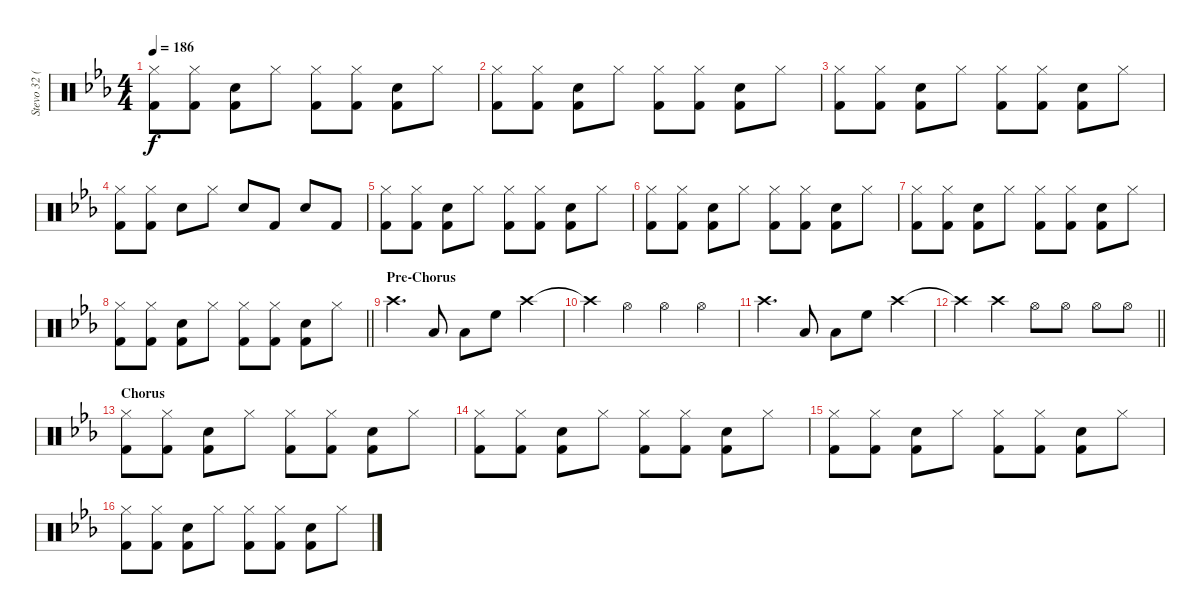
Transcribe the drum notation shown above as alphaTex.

\track ("Stevo 32 (Drums)" "Stevo 32 (") {instrument percussion}
\staff {score}
\articulation defaults
\ts (4 4)
\tempo 186
\clef neutral
\ks eb
("Kick (hit) 2" "Hi-Hat (closed)").8{dy f} ("Kick (hit) 2" "Hi-Hat (closed)").8 ("Kick (hit) 2" "Snare (hit) 2").8 "Hi-Hat (closed)".8 ("Kick (hit) 2" "Hi-Hat (closed)").8 ("Kick (hit) 2" "Hi-Hat (closed)").8 ("Kick (hit) 2" "Snare (hit) 2").8 "Hi-Hat (closed)".8 |
("Kick (hit) 2" "Hi-Hat (closed)").8 ("Kick (hit) 2" "Hi-Hat (closed)").8 ("Kick (hit) 2" "Snare (hit) 2").8 "Hi-Hat (closed)".8 ("Kick (hit) 2" "Hi-Hat (closed)").8 ("Kick (hit) 2" "Hi-Hat (closed)").8 ("Kick (hit) 2" "Snare (hit) 2").8 "Hi-Hat (closed)".8 |
("Kick (hit) 2" "Hi-Hat (closed)").8 ("Kick (hit) 2" "Hi-Hat (closed)").8 ("Kick (hit) 2" "Snare (hit) 2").8 "Hi-Hat (closed)".8 ("Kick (hit) 2" "Hi-Hat (closed)").8 ("Kick (hit) 2" "Hi-Hat (closed)").8 ("Kick (hit) 2" "Snare (hit) 2").8 "Hi-Hat (closed)".8 |
("Kick (hit) 2" "Hi-Hat (closed)").8 ("Kick (hit) 2" "Hi-Hat (closed)").8 "Snare (hit) 2".8 "Hi-Hat (closed)".8 "Snare (hit) 2".8 "Kick (hit) 2".8 "Snare (hit) 2".8 "Kick (hit) 2".8 |
("Kick (hit) 2" "Hi-Hat (closed)").8 ("Kick (hit) 2" "Hi-Hat (closed)").8 ("Kick (hit) 2" "Snare (hit) 2").8 "Hi-Hat (closed)".8 ("Kick (hit) 2" "Hi-Hat (closed)").8 ("Kick (hit) 2" "Hi-Hat (closed)").8 ("Kick (hit) 2" "Snare (hit) 2").8 "Hi-Hat (closed)".8 |
("Kick (hit) 2" "Hi-Hat (closed)").8 ("Kick (hit) 2" "Hi-Hat (closed)").8 ("Kick (hit) 2" "Snare (hit) 2").8 "Hi-Hat (closed)".8 ("Kick (hit) 2" "Hi-Hat (closed)").8 ("Kick (hit) 2" "Hi-Hat (closed)").8 ("Kick (hit) 2" "Snare (hit) 2").8 "Hi-Hat (closed)".8 |
("Kick (hit) 2" "Hi-Hat (closed)").8 ("Kick (hit) 2" "Hi-Hat (closed)").8 ("Kick (hit) 2" "Snare (hit) 2").8 "Hi-Hat (closed)".8 ("Kick (hit) 2" "Hi-Hat (closed)").8 ("Kick (hit) 2" "Hi-Hat (closed)").8 ("Kick (hit) 2" "Snare (hit) 2").8 "Hi-Hat (closed)".8 |
\barLineRight lightlight
("Kick (hit) 2" "Hi-Hat (closed)").8 ("Kick (hit) 2" "Hi-Hat (closed)").8 ("Kick (hit) 2" "Snare (hit) 2").8 "Hi-Hat (closed)".8 ("Kick (hit) 2" "Hi-Hat (closed)").8 ("Kick (hit) 2" "Hi-Hat (closed)").8 ("Kick (hit) 2" "Snare (hit) 2").8 "Hi-Hat (closed)".8 |
\section ("" "Pre-Chorus")
"Crash high (hit)".4{d} "Low Floor Tom (hit)".8 "Low Tom (hit)".8 "High Floor Tom (hit)".8 "Crash high (hit)".4 |
"Crash high (hit)"{t}.4 "Hi-Hat (open)".4 "Hi-Hat (open)".4 "Hi-Hat (open)".4 |
"Crash high (hit)".4{d} "Low Floor Tom (hit)".8 "Low Tom (hit)".8 "High Floor Tom (hit)".8 "Crash high (hit)".4 |
\barLineRight lightlight "Crash high (hit)"{t}.4 "Crash high (hit)".4 "Hi-Hat (open)".8 "Hi-Hat (open)".8 "Hi-Hat (open)".8 "Hi-Hat (open)".8
|
\section ("" "Chorus")
("Kick (hit) 2" "Hi-Hat (closed)").8 ("Kick (hit) 2" "Hi-Hat (closed)").8 ("Kick (hit) 2" "Snare (hit) 2").8 "Hi-Hat (closed)".8 ("Kick (hit) 2" "Hi-Hat (closed)").8 ("Kick (hit) 2" "Hi-Hat (closed)").8 ("Kick (hit) 2" "Snare (hit) 2").8 "Hi-Hat (closed)".8 |
("Kick (hit) 2" "Hi-Hat (closed)").8 ("Kick (hit) 2" "Hi-Hat (closed)").8 ("Kick (hit) 2" "Snare (hit) 2").8 "Hi-Hat (closed)".8 ("Kick (hit) 2" "Hi-Hat (closed)").8 ("Kick (hit) 2" "Hi-Hat (closed)").8 ("Kick (hit) 2" "Snare (hit) 2").8 "Hi-Hat (closed)".8 |
("Kick (hit) 2" "Hi-Hat (closed)").8 ("Kick (hit) 2" "Hi-Hat (closed)").8 ("Kick (hit) 2" "Snare (hit) 2").8 "Hi-Hat (closed)".8 ("Kick (hit) 2" "Hi-Hat (closed)").8 ("Kick (hit) 2" "Hi-Hat (closed)").8 ("Kick (hit) 2" "Snare (hit) 2").8 "Hi-Hat (closed)".8 |
("Kick (hit) 2" "Hi-Hat (closed)").8 ("Kick (hit) 2" "Hi-Hat (closed)").8 ("Kick (hit) 2" "Snare (hit) 2").8 "Hi-Hat (closed)".8 ("Kick (hit) 2" "Hi-Hat (closed)").8 ("Kick (hit) 2" "Hi-Hat (closed)").8 ("Kick (hit) 2" "Snare (hit) 2").8 "Hi-Hat (closed)".8
